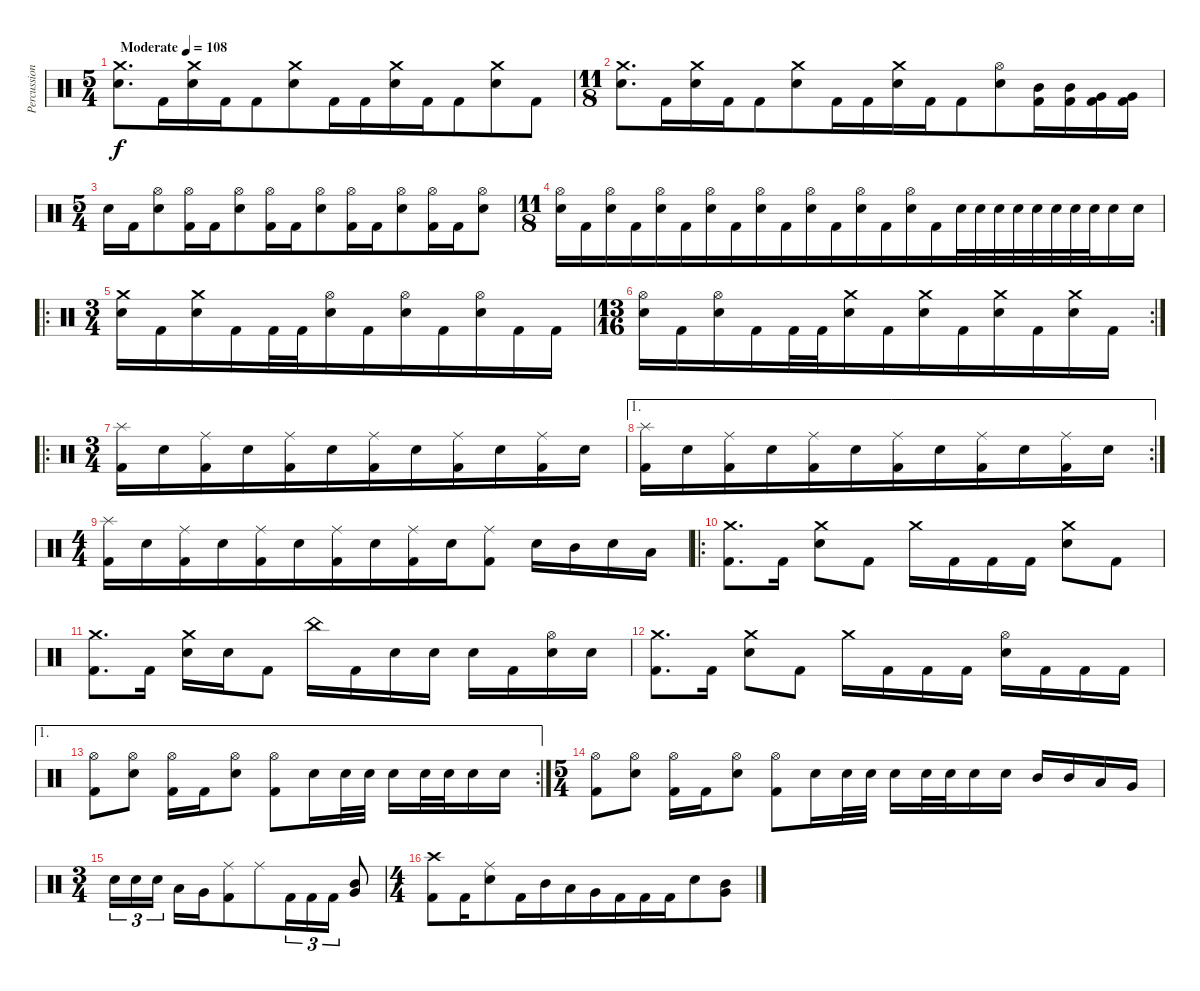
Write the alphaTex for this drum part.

\track ("Percussion" "Percussion") {instrument percussion}
\staff {score}
\articulation defaults
\ts (5 4)
\tempo (108 "Moderate")
\clef neutral
\ks c
("Crash medium (hit)" "Snare (hit) 2").8{d dy f} "Kick (hit) 2".16{beam merge} ("Crash medium (hit)" "Snare (hit) 2").16 "Kick (hit) 2".16 "Kick (hit) 2".8{beam merge} ("Crash medium (hit)" "Snare (hit) 2").8 "Kick (hit) 2".16 "Kick (hit) 2".16{beam merge} ("Crash medium (hit)" "Snare (hit) 2").16 "Kick (hit) 2".16 "Kick (hit) 2".8{beam merge} ("Crash medium (hit)" "Snare (hit) 2").8 "Kick (hit) 2".8 |
\ts (11 8)
("Crash medium (hit)" "Snare (hit) 2").8{d beam merge} "Kick (hit) 2".16{beam merge} ("Crash medium (hit)" "Snare (hit) 2").16 "Kick (hit) 2".16{beam merge} "Kick (hit) 2".8{beam merge} ("Crash medium (hit)" "Snare (hit) 2").8{beam merge} "Kick (hit) 2".16 "Kick (hit) 2".16{beam merge} ("Crash medium (hit)" "Snare (hit) 2").16 "Kick (hit) 2".16{beam merge} "Kick (hit) 2".8{beam merge} ("Hi-Hat (open)" "Snare (hit) 2").8{beam merge} ("Mid Tom (hit)" "Kick (hit) 2").16 ("Mid Tom (hit)" "Kick (hit) 2").16{beam merge} ("Very Low Tom (hit)" "Kick (hit) 2").16 ("Very Low Tom (hit)" "Kick (hit) 2").16 |
\ts (5 4)
"Snare (hit) 2".16 "Kick (hit) 2".16 ("Hi-Hat (open)" "Snare (hit) 2").8{beam merge} ("Hi-Hat (open)" "Kick (hit) 2").16 "Kick (hit) 2".16 ("Hi-Hat (open)" "Snare (hit) 2").8{beam merge} ("Hi-Hat (open)" "Kick (hit) 2").16 "Kick (hit) 2".16 ("Hi-Hat (open)" "Snare (hit) 2").8{beam merge} ("Hi-Hat (open)" "Kick (hit) 2").16 "Kick (hit) 2".16 ("Hi-Hat (open)" "Snare (hit) 2").8{beam merge} ("Hi-Hat (open)" "Kick (hit) 2").16 "Kick (hit) 2".16 ("Hi-Hat (open)" "Snare (hit) 2").8 |
\ts (11 8)
("Hi-Hat (open)" "Snare (hit) 2").16 "Kick (hit) 2".16{beam merge} ("Hi-Hat (open)" "Snare (hit) 2").16 "Kick (hit) 2".16{beam merge} ("Hi-Hat (open)" "Snare (hit) 2").16 "Kick (hit) 2".16{beam merge} ("Hi-Hat (open)" "Snare (hit) 2").16 "Kick (hit) 2".16{beam merge} ("Hi-Hat (open)" "Snare (hit) 2").16 "Kick (hit) 2".16{beam merge} ("Hi-Hat (open)" "Snare (hit) 2").16 "Kick (hit) 2".16{beam merge} ("Hi-Hat (open)" "Snare (hit) 2").16 "Kick (hit) 2".16{beam merge} ("Hi-Hat (open)" "Snare (hit) 2").16 "Kick (hit) 2".16{beam merge} "Snare (hit) 2".32 "Snare (hit) 2".32 "Snare (hit) 2".32 "Snare (hit) 2".32{beam merge} "Snare (hit) 2".32 "Snare (hit) 2".32 "Snare (hit) 2".32 "Snare (hit) 2".32{beam merge} "Snare (hit) 2".16 "Snare (hit) 2".16 |
\ro
\ts (3 4)
("Crash medium (hit)" "Snare (hit) 2").16 "Kick (hit) 2".16 ("Crash medium (hit)" "Snare (hit) 2").16 "Kick (hit) 2".16{beam merge} "Kick (hit) 2".32 "Kick (hit) 2".32 ("Hi-Hat (open)" "Snare (hit) 2").16 "Kick (hit) 2".16 ("Hi-Hat (open)" "Snare (hit) 2").16{beam merge} "Kick (hit) 2".16 ("Hi-Hat (open)" "Snare (hit) 2").16 "Kick (hit) 2".16 "Kick (hit) 2".16 |
\rc 2
\ts (13 16)
("Hi-Hat (open)" "Snare (hit) 2").16{beam merge} "Kick (hit) 2".16{beam merge} ("Hi-Hat (open)" "Snare (hit) 2").16{beam merge} "Kick (hit) 2".16{beam merge} "Kick (hit) 2".32 "Kick (hit) 2".32{beam merge} ("Crash medium (hit)" "Snare (hit) 2").16{beam merge} "Kick (hit) 2".16{beam merge} ("Crash medium (hit)" "Snare (hit) 2").16{beam merge} "Kick (hit) 2".16{beam merge} ("Crash medium (hit)" "Snare (hit) 2").16{beam merge} "Kick (hit) 2".16{beam merge} ("Crash medium (hit)" "Snare (hit) 2").16{beam merge} "Kick (hit) 2".16 |
\ro
\ts (3 4)
("Splash (hit)" "Kick (hit) 2").16 "Snare (hit) 2".16 ("Ride (middle)" "Kick (hit) 2").16 "Snare (hit) 2".16{beam merge} ("Ride (middle)" "Kick (hit) 2").16 "Snare (hit) 2".16 ("Ride (middle)" "Kick (hit) 2").16 "Snare (hit) 2".16{beam merge} ("Ride (middle)" "Kick (hit) 2").16 "Snare (hit) 2".16 ("Ride (middle)" "Kick (hit) 2").16 "Snare (hit) 2".16 |
\ae 1
\rc 2
("Splash (hit)" "Kick (hit) 2").16 "Snare (hit) 2".16 ("Ride (middle)" "Kick (hit) 2").16 "Snare (hit) 2".16{beam merge} ("Ride (middle)" "Kick (hit) 2").16 "Snare (hit) 2".16 ("Ride (middle)" "Kick (hit) 2").16 "Snare (hit) 2".16{beam merge} ("Ride (middle)" "Kick (hit) 2").16 "Snare (hit) 2".16 ("Ride (middle)" "Kick (hit) 2").16 "Snare (hit) 2".16 |
\ts (4 4)
("Splash (hit)" "Kick (hit) 2").16 "Snare (hit) 2".16 ("Ride (middle)" "Kick (hit) 2").16 "Snare (hit) 2".16{beam merge} ("Ride (middle)" "Kick (hit) 2").16 "Snare (hit) 2".16 ("Ride (middle)" "Kick (hit) 2").16 "Snare (hit) 2".16{beam merge} ("Ride (middle)" "Kick (hit) 2").16 "Snare (hit) 2".16 ("Ride (middle)" "Kick (hit) 2").8 "Snare (hit) 2".16 "Mid Tom (hit)".16 "Snare (hit) 2".16 "Low Tom (hit)".16 |
\ro
("Crash medium (hit)" "Kick (hit) 2").8{d} "Kick (hit) 2".16 ("Crash medium (hit)" "Snare (hit) 2").8 "Kick (hit) 2".8 "Crash medium (hit)".16 "Kick (hit) 2".16 "Kick (hit) 2".16 "Kick (hit) 2".16 ("Crash medium (hit)" "Snare (hit) 2").8 "Kick (hit) 2".8 |
("Crash medium (hit)" "Kick (hit) 2").8{d} "Kick (hit) 2".16 ("Crash medium (hit)" "Snare (hit) 2").16 "Snare (hit) 2".16 "Kick (hit) 2".8 "China (hit)".16 "Kick (hit) 2".16 "Snare (hit) 2".16 "Snare (hit) 2".16 "Snare (hit) 2".16 "Kick (hit) 2".16 ("Hi-Hat (open)" "Snare (hit) 2").16 "Snare (hit) 2".16 |
("Crash medium (hit)" "Kick (hit) 2").8{d} "Kick (hit) 2".16 ("Crash medium (hit)" "Snare (hit) 2").8 "Kick (hit) 2".8 "Crash medium (hit)".16 "Kick (hit) 2".16 "Kick (hit) 2".16 "Kick (hit) 2".16 ("Hi-Hat (open)" "Snare (hit) 2").16 "Kick (hit) 2".16 "Kick (hit) 2".16 "Kick (hit) 2".16 |
\ae 1
\rc 2
("Hi-Hat (open)" "Kick (hit) 2").8 ("Hi-Hat (open)" "Snare (hit) 2").8 ("Hi-Hat (open)" "Kick (hit) 2").16 "Kick (hit) 2".16 ("Hi-Hat (open)" "Snare (hit) 2").8 ("Hi-Hat (open)" "Kick (hit) 2").8 "Snare (hit) 2".16 "Snare (hit) 2".32 "Snare (hit) 2".32 "Snare (hit) 2".16 "Snare (hit) 2".32 "Snare (hit) 2".32 "Snare (hit) 2".16 "Snare (hit) 2".16 |
\ts (5 4)
("Hi-Hat (open)" "Kick (hit) 2").8 ("Hi-Hat (open)" "Snare (hit) 2").8 ("Hi-Hat (open)" "Kick (hit) 2").16 "Kick (hit) 2".16 ("Hi-Hat (open)" "Snare (hit) 2").8 ("Hi-Hat (open)" "Kick (hit) 2").8 "Snare (hit) 2".16 "Snare (hit) 2".32 "Snare (hit) 2".32 "Snare (hit) 2".16 "Snare (hit) 2".32 "Snare (hit) 2".32 "Snare (hit) 2".16 "Snare (hit) 2".16 "Mid Tom (hit)".16 "Mid Tom (hit)".16 "Low Tom (hit)".16 "Very Low Tom (hit)".16 |
\ts (3 4)
"Snare (hit) 2".16{tu (3 2)} "Snare (hit) 2".16{tu (3 2)} "Snare (hit) 2".16{tu (3 2) beam splitsecondary} "Low Tom (hit)".16 "Very Low Tom (hit)".16{beam merge} ("Ride (middle)" "Kick (hit) 2").8 "Ride (middle)".8{beam merge} "Kick (hit) 2".16{tu (3 2)} "Kick (hit) 2".16{tu (3 2)} "Kick (hit) 2".16{tu (3 2)} ("Very Low Tom (hit)" "Mid Tom (hit)").8 |
\ts (4 4)
("Crash high (hit)" "Kick (hit) 2").8 "Kick (hit) 2".16 ("Ride (middle)" "Snare (hit) 2").8{beam merge} "Kick (hit) 2".16 "Mid Tom (hit)".16 "Low Tom (hit)".16{beam merge} "Very Low Tom (hit)".16 "Kick (hit) 2".16 "Kick (hit) 2".16 "Kick (hit) 2".16{beam merge} "Snare (hit) 2".8 ("Mid Tom (hit)" "Very Low Tom (hit)").8
